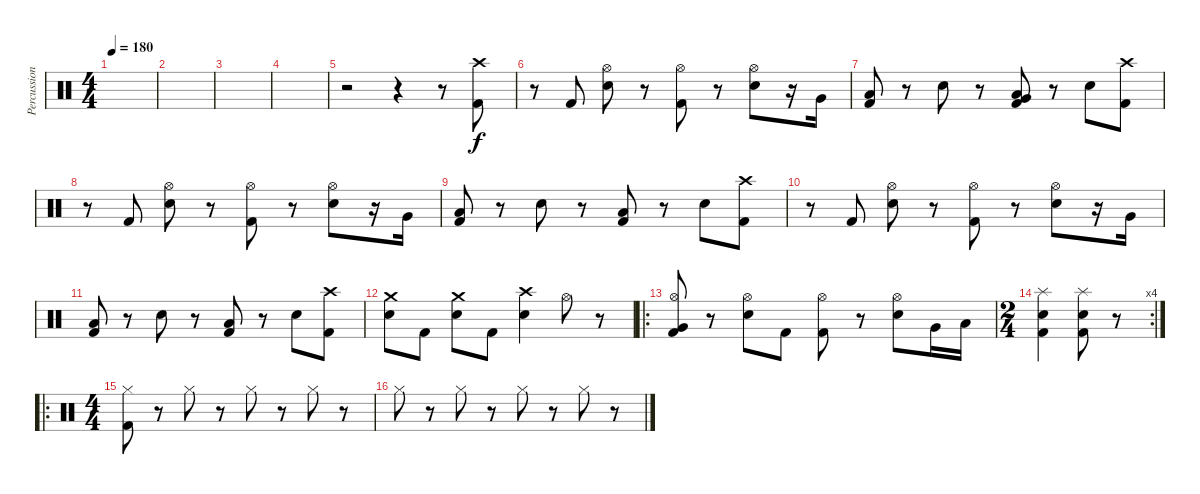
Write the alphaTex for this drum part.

\track ("Percussion" "Percussion") {instrument percussion}
\staff {score}
\articulation defaults
\ts (4 4)
\tempo 180
\clef neutral
\ks c
|
|
|
|
r.2 r.4 r.8 ("Crash high (hit)" "Kick (hit) 2").8 |
r.8 "Kick (hit) 2".8 ("Hi-Hat (open)" "Electric Snare (hit)").8 r.8 ("Hi-Hat (open)" "Kick (hit) 2").8 r.8 ("Hi-Hat (open)" "Electric Snare (hit)").8 r.16 "Very Low Tom (hit)".16 |
("Low Floor Tom (hit)" "Kick (hit) 2").8 r.8 "Electric Snare (hit)".8 r.8 ("Low Floor Tom (hit)" "Very Low Tom (hit)" "Kick (hit) 2").8 r.8 "Electric Snare (hit)".8 ("Crash high (hit)" "Kick (hit) 2").8 |
r.8 "Kick (hit) 2".8 ("Hi-Hat (open)" "Electric Snare (hit)").8 r.8 ("Hi-Hat (open)" "Kick (hit) 2").8 r.8 ("Hi-Hat (open)" "Electric Snare (hit)").8 r.16 "Very Low Tom (hit)".16 |
("Low Floor Tom (hit)" "Kick (hit) 2").8 r.8 "Electric Snare (hit)".8 r.8 ("Low Floor Tom (hit)" "Kick (hit) 2").8 r.8 "Electric Snare (hit)".8 ("Crash high (hit)" "Kick (hit) 2").8 |
r.8 "Kick (hit) 2".8 ("Hi-Hat (open)" "Electric Snare (hit)").8 r.8 ("Hi-Hat (open)" "Kick (hit) 2").8 r.8 ("Hi-Hat (open)" "Electric Snare (hit)").8 r.16 "Very Low Tom (hit)".16 |
("Low Floor Tom (hit)" "Kick (hit) 2").8 r.8 "Electric Snare (hit)".8 r.8 ("Low Floor Tom (hit)" "Kick (hit) 2").8 r.8 "Electric Snare (hit)".8 ("Crash high (hit)" "Kick (hit) 2").8 |
("Crash medium (hit)" "Electric Snare (hit)").8 "Kick (hit) 2".8 ("Crash medium (hit)" "Electric Snare (hit)").8 "Kick (hit) 2".8 ("Crash high (hit)" "Electric Snare (hit)").4 "Hi-Hat (open)".8 r.8 |
\ro
("Hi-Hat (open)" "Very Low Tom (hit)" "Kick (hit) 2").8 r.8 ("Hi-Hat (open)" "Electric Snare (hit)").8 "Kick (hit) 2".8 ("Hi-Hat (open)" "Kick (hit) 2").8 r.8 ("Hi-Hat (open)" "Electric Snare (hit)").8 "Very Low Tom (hit)".16 "Low Tom (hit)".16 |
\rc 4
\ts (2 4)
("Splash (hit)" "Electric Snare (hit)" "Kick (hit) 2").4 ("Splash (hit)" "Electric Snare (hit)" "Kick (hit) 2").8 r.8 |
\ro
\ts (4 4)
("Hi-Hat (closed)" "Kick (hit) 2").8 r.8 "Hi-Hat (closed)".8 r.8 "Hi-Hat (closed)".8 r.8 "Hi-Hat (closed)".8 r.8 |
"Hi-Hat (closed)".8 r.8 "Hi-Hat (closed)".8 r.8 "Hi-Hat (closed)".8 r.8 "Hi-Hat (closed)".8 r.8
